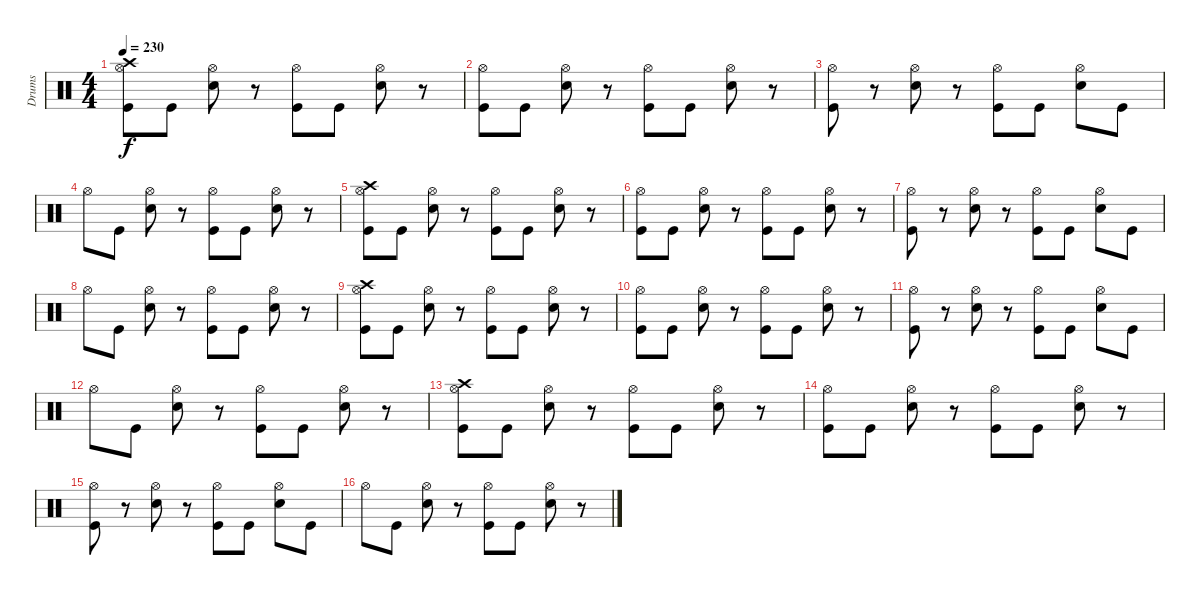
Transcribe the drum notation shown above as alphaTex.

\track ("Drums" "Drums") {instrument percussion}
\staff {score}
\articulation defaults
\ts (4 4)
\tempo 230
\clef neutral
\ks c
("Crash high (hit)" "Kick (hit)" "Hi-Hat (open)").8{dy f} "Kick (hit)".8 ("Electric Snare (hit)" "Hi-Hat (open)").8 r.8 ("Kick (hit)" "Hi-Hat (open)").8 "Kick (hit)".8 ("Electric Snare (hit)" "Hi-Hat (open)").8 r.8 |
("Kick (hit)" "Hi-Hat (open)").8 "Kick (hit)".8 ("Electric Snare (hit)" "Hi-Hat (open)").8 r.8 ("Kick (hit)" "Hi-Hat (open)").8 "Kick (hit)".8 ("Electric Snare (hit)" "Hi-Hat (open)").8 r.8 |
("Kick (hit)" "Hi-Hat (open)").8 r.8 ("Electric Snare (hit)" "Hi-Hat (open)").8 r.8 ("Kick (hit)" "Hi-Hat (open)").8 "Kick (hit)".8 ("Electric Snare (hit)" "Hi-Hat (open)").8 "Kick (hit)".8 |
"Hi-Hat (open)".8 "Kick (hit)".8 ("Electric Snare (hit)" "Hi-Hat (open)").8 r.8 ("Kick (hit)" "Hi-Hat (open)").8 "Kick (hit)".8 ("Electric Snare (hit)" "Hi-Hat (open)").8 r.8 |
("Crash high (hit)" "Kick (hit)" "Hi-Hat (open)").8 "Kick (hit)".8 ("Electric Snare (hit)" "Hi-Hat (open)").8 r.8 ("Kick (hit)" "Hi-Hat (open)").8 "Kick (hit)".8 ("Electric Snare (hit)" "Hi-Hat (open)").8 r.8 |
("Kick (hit)" "Hi-Hat (open)").8 "Kick (hit)".8 ("Electric Snare (hit)" "Hi-Hat (open)").8 r.8 ("Kick (hit)" "Hi-Hat (open)").8 "Kick (hit)".8 ("Electric Snare (hit)" "Hi-Hat (open)").8 r.8 |
("Kick (hit)" "Hi-Hat (open)").8 r.8 ("Electric Snare (hit)" "Hi-Hat (open)").8 r.8 ("Kick (hit)" "Hi-Hat (open)").8 "Kick (hit)".8 ("Electric Snare (hit)" "Hi-Hat (open)").8 "Kick (hit)".8 |
"Hi-Hat (open)".8 "Kick (hit)".8 ("Electric Snare (hit)" "Hi-Hat (open)").8 r.8 ("Kick (hit)" "Hi-Hat (open)").8 "Kick (hit)".8 ("Electric Snare (hit)" "Hi-Hat (open)").8 r.8 |
("Crash high (hit)" "Kick (hit)" "Hi-Hat (open)").8 "Kick (hit)".8 ("Electric Snare (hit)" "Hi-Hat (open)").8 r.8 ("Kick (hit)" "Hi-Hat (open)").8 "Kick (hit)".8 ("Electric Snare (hit)" "Hi-Hat (open)").8 r.8 |
("Kick (hit)" "Hi-Hat (open)").8 "Kick (hit)".8 ("Electric Snare (hit)" "Hi-Hat (open)").8 r.8 ("Kick (hit)" "Hi-Hat (open)").8 "Kick (hit)".8 ("Electric Snare (hit)" "Hi-Hat (open)").8 r.8 |
("Kick (hit)" "Hi-Hat (open)").8 r.8 ("Electric Snare (hit)" "Hi-Hat (open)").8 r.8 ("Kick (hit)" "Hi-Hat (open)").8 "Kick (hit)".8 ("Electric Snare (hit)" "Hi-Hat (open)").8 "Kick (hit)".8 |
"Hi-Hat (open)".8 "Kick (hit)".8 ("Electric Snare (hit)" "Hi-Hat (open)").8 r.8 ("Kick (hit)" "Hi-Hat (open)").8 "Kick (hit)".8 ("Electric Snare (hit)" "Hi-Hat (open)").8 r.8 |
("Crash high (hit)" "Kick (hit)" "Hi-Hat (open)").8 "Kick (hit)".8 ("Electric Snare (hit)" "Hi-Hat (open)").8 r.8 ("Kick (hit)" "Hi-Hat (open)").8 "Kick (hit)".8 ("Electric Snare (hit)" "Hi-Hat (open)").8 r.8 |
("Kick (hit)" "Hi-Hat (open)").8 "Kick (hit)".8 ("Electric Snare (hit)" "Hi-Hat (open)").8 r.8 ("Kick (hit)" "Hi-Hat (open)").8 "Kick (hit)".8 ("Electric Snare (hit)" "Hi-Hat (open)").8 r.8 |
("Kick (hit)" "Hi-Hat (open)").8 r.8 ("Electric Snare (hit)" "Hi-Hat (open)").8 r.8 ("Kick (hit)" "Hi-Hat (open)").8 "Kick (hit)".8 ("Electric Snare (hit)" "Hi-Hat (open)").8 "Kick (hit)".8 |
"Hi-Hat (open)".8 "Kick (hit)".8 ("Electric Snare (hit)" "Hi-Hat (open)").8 r.8 ("Kick (hit)" "Hi-Hat (open)").8 "Kick (hit)".8 ("Electric Snare (hit)" "Hi-Hat (open)").8 r.8
